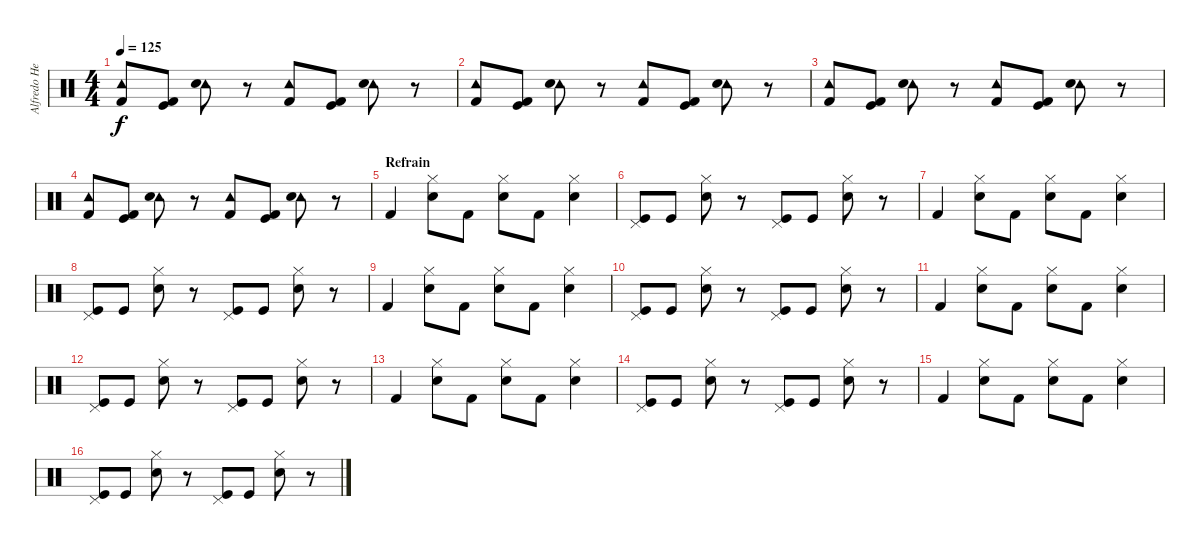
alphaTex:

\track ("Alfredo Hernandez (Drums)" "Alfredo He") {instrument percussion}
\staff {score}
\articulation defaults
\ts (4 4)
\tempo 125
\clef neutral
\ks c
("Tambourine (hit)" "Kick (hit) 2").8{dy f} ("Kick (hit)" "Kick (hit) 2").8 ("Tambourine (hit)" "Electric Snare (hit)").8 r.8 ("Tambourine (hit)" "Kick (hit) 2").8 ("Kick (hit)" "Kick (hit) 2").8 ("Tambourine (hit)" "Electric Snare (hit)").8 r.8 |
("Tambourine (hit)" "Kick (hit) 2").8 ("Kick (hit)" "Kick (hit) 2").8 ("Tambourine (hit)" "Electric Snare (hit)").8 r.8 ("Tambourine (hit)" "Kick (hit) 2").8 ("Kick (hit)" "Kick (hit) 2").8 ("Tambourine (hit)" "Electric Snare (hit)").8 r.8 |
("Tambourine (hit)" "Kick (hit) 2").8 ("Kick (hit)" "Kick (hit) 2").8 ("Tambourine (hit)" "Electric Snare (hit)").8 r.8 ("Tambourine (hit)" "Kick (hit) 2").8 ("Kick (hit)" "Kick (hit) 2").8 ("Tambourine (hit)" "Electric Snare (hit)").8 r.8 |
("Tambourine (hit)" "Kick (hit) 2").8 ("Kick (hit)" "Kick (hit) 2").8 ("Tambourine (hit)" "Electric Snare (hit)").8 r.8 ("Tambourine (hit)" "Kick (hit) 2").8 ("Kick (hit)" "Kick (hit) 2").8 ("Tambourine (hit)" "Electric Snare (hit)").8 r.8 |
\section ("" "Refrain")
"Kick (hit) 2".4 ("Hi-Hat (closed)" "Electric Snare (hit)").8 "Kick (hit) 2".8 ("Hi-Hat (closed)" "Electric Snare (hit)").8 "Kick (hit) 2".8 ("Hi-Hat (closed)" "Electric Snare (hit)").4 |
("Kick (hit)" "Pedal Hi-Hat (hit)").8 "Kick (hit)".8 ("Hi-Hat (closed)" "Electric Snare (hit)").8 r.8 ("Kick (hit)" "Pedal Hi-Hat (hit)").8 "Kick (hit)".8 ("Hi-Hat (closed)" "Electric Snare (hit)").8 r.8 |
"Kick (hit) 2".4 ("Hi-Hat (closed)" "Electric Snare (hit)").8 "Kick (hit) 2".8 ("Hi-Hat (closed)" "Electric Snare (hit)").8 "Kick (hit) 2".8 ("Hi-Hat (closed)" "Electric Snare (hit)").4 |
("Kick (hit)" "Pedal Hi-Hat (hit)").8 "Kick (hit)".8 ("Hi-Hat (closed)" "Electric Snare (hit)").8 r.8 ("Kick (hit)" "Pedal Hi-Hat (hit)").8 "Kick (hit)".8 ("Hi-Hat (closed)" "Electric Snare (hit)").8 r.8 |
"Kick (hit) 2".4 ("Hi-Hat (closed)" "Electric Snare (hit)").8 "Kick (hit) 2".8 ("Hi-Hat (closed)" "Electric Snare (hit)").8 "Kick (hit) 2".8 ("Hi-Hat (closed)" "Electric Snare (hit)").4 |
("Kick (hit)" "Pedal Hi-Hat (hit)").8 "Kick (hit)".8 ("Hi-Hat (closed)" "Electric Snare (hit)").8 r.8 ("Kick (hit)" "Pedal Hi-Hat (hit)").8 "Kick (hit)".8 ("Hi-Hat (closed)" "Electric Snare (hit)").8 r.8 |
"Kick (hit) 2".4 ("Hi-Hat (closed)" "Electric Snare (hit)").8 "Kick (hit) 2".8 ("Hi-Hat (closed)" "Electric Snare (hit)").8 "Kick (hit) 2".8 ("Hi-Hat (closed)" "Electric Snare (hit)").4 |
("Kick (hit)" "Pedal Hi-Hat (hit)").8 "Kick (hit)".8 ("Hi-Hat (closed)" "Electric Snare (hit)").8 r.8 ("Kick (hit)" "Pedal Hi-Hat (hit)").8 "Kick (hit)".8 ("Hi-Hat (closed)" "Electric Snare (hit)").8 r.8 |
"Kick (hit) 2".4 ("Hi-Hat (closed)" "Electric Snare (hit)").8 "Kick (hit) 2".8 ("Hi-Hat (closed)" "Electric Snare (hit)").8 "Kick (hit) 2".8 ("Hi-Hat (closed)" "Electric Snare (hit)").4 |
("Kick (hit)" "Pedal Hi-Hat (hit)").8 "Kick (hit)".8 ("Hi-Hat (closed)" "Electric Snare (hit)").8 r.8 ("Kick (hit)" "Pedal Hi-Hat (hit)").8 "Kick (hit)".8 ("Hi-Hat (closed)" "Electric Snare (hit)").8 r.8 |
"Kick (hit) 2".4 ("Hi-Hat (closed)" "Electric Snare (hit)").8 "Kick (hit) 2".8 ("Hi-Hat (closed)" "Electric Snare (hit)").8 "Kick (hit) 2".8 ("Hi-Hat (closed)" "Electric Snare (hit)").4 |
("Kick (hit)" "Pedal Hi-Hat (hit)").8 "Kick (hit)".8 ("Hi-Hat (closed)" "Electric Snare (hit)").8 r.8 ("Kick (hit)" "Pedal Hi-Hat (hit)").8 "Kick (hit)".8 ("Hi-Hat (closed)" "Electric Snare (hit)").8 r.8
